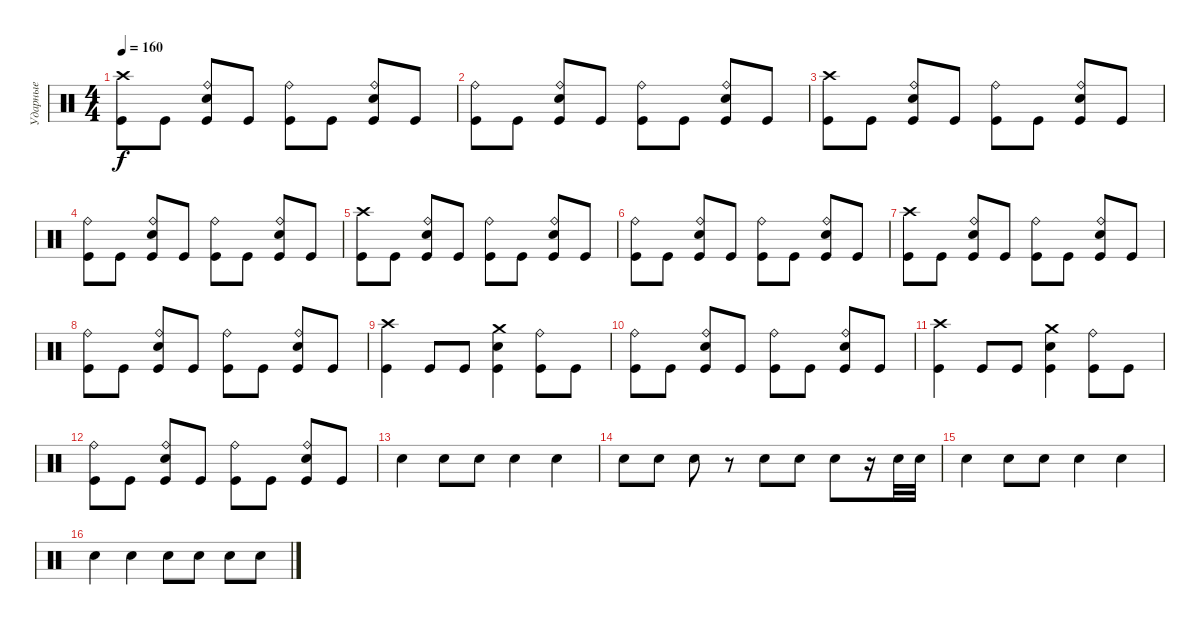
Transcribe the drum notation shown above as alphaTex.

\track ("Ударные" "Ударные") {instrument percussion}
\staff {score}
\articulation defaults
\ts (4 4)
\tempo 160
\clef neutral
\ks c
("Crash high (hit)" "Kick (hit)").8{dy f} "Kick (hit)".8 ("Ride (bell)" "Electric Snare (hit)" "Kick (hit)").8 "Kick (hit)".8 ("Ride (bell)" "Kick (hit)").8 "Kick (hit)".8 ("Ride (bell)" "Electric Snare (hit)" "Kick (hit)").8 "Kick (hit)".8 |
("Ride (bell)" "Kick (hit)").8 "Kick (hit)".8 ("Ride (bell)" "Electric Snare (hit)" "Kick (hit)").8 "Kick (hit)".8 ("Ride (bell)" "Kick (hit)").8 "Kick (hit)".8 ("Ride (bell)" "Electric Snare (hit)" "Kick (hit)").8 "Kick (hit)".8 |
("Crash high (hit)" "Kick (hit)").8 "Kick (hit)".8 ("Ride (bell)" "Electric Snare (hit)" "Kick (hit)").8 "Kick (hit)".8 ("Ride (bell)" "Kick (hit)").8 "Kick (hit)".8 ("Ride (bell)" "Electric Snare (hit)" "Kick (hit)").8 "Kick (hit)".8 |
("Ride (bell)" "Kick (hit)").8 "Kick (hit)".8 ("Ride (bell)" "Electric Snare (hit)" "Kick (hit)").8 "Kick (hit)".8 ("Ride (bell)" "Kick (hit)").8 "Kick (hit)".8 ("Ride (bell)" "Electric Snare (hit)" "Kick (hit)").8 "Kick (hit)".8 |
("Crash high (hit)" "Kick (hit)").8 "Kick (hit)".8 ("Ride (bell)" "Electric Snare (hit)" "Kick (hit)").8 "Kick (hit)".8 ("Ride (bell)" "Kick (hit)").8 "Kick (hit)".8 ("Ride (bell)" "Electric Snare (hit)" "Kick (hit)").8 "Kick (hit)".8 |
("Ride (bell)" "Kick (hit)").8 "Kick (hit)".8 ("Ride (bell)" "Electric Snare (hit)" "Kick (hit)").8 "Kick (hit)".8 ("Ride (bell)" "Kick (hit)").8 "Kick (hit)".8 ("Ride (bell)" "Electric Snare (hit)" "Kick (hit)").8 "Kick (hit)".8 |
("Crash high (hit)" "Kick (hit)").8 "Kick (hit)".8 ("Ride (bell)" "Electric Snare (hit)" "Kick (hit)").8 "Kick (hit)".8 ("Ride (bell)" "Kick (hit)").8 "Kick (hit)".8 ("Ride (bell)" "Electric Snare (hit)" "Kick (hit)").8 "Kick (hit)".8 |
("Ride (bell)" "Kick (hit)").8 "Kick (hit)".8 ("Ride (bell)" "Electric Snare (hit)" "Kick (hit)").8 "Kick (hit)".8 ("Ride (bell)" "Kick (hit)").8 "Kick (hit)".8 ("Ride (bell)" "Electric Snare (hit)" "Kick (hit)").8 "Kick (hit)".8 |
("Crash high (hit)" "Kick (hit)").4 "Kick (hit)".8 "Kick (hit)".8 ("Crash medium (hit)" "Electric Snare (hit)" "Kick (hit)").4 ("Ride (bell)" "Kick (hit)").8 "Kick (hit)".8 |
("Ride (bell)" "Kick (hit)").8 "Kick (hit)".8 ("Ride (bell)" "Electric Snare (hit)" "Kick (hit)").8 "Kick (hit)".8 ("Ride (bell)" "Kick (hit)").8 "Kick (hit)".8 ("Ride (bell)" "Electric Snare (hit)" "Kick (hit)").8 "Kick (hit)".8 |
("Crash high (hit)" "Kick (hit)").4 "Kick (hit)".8 "Kick (hit)".8 ("Crash medium (hit)" "Electric Snare (hit)" "Kick (hit)").4 ("Ride (bell)" "Kick (hit)").8 "Kick (hit)".8 |
("Ride (bell)" "Kick (hit)").8 "Kick (hit)".8 ("Ride (bell)" "Electric Snare (hit)" "Kick (hit)").8 "Kick (hit)".8 ("Ride (bell)" "Kick (hit)").8 "Kick (hit)".8 ("Ride (bell)" "Electric Snare (hit)" "Kick (hit)").8 "Kick (hit)".8 |
"Snare (hit) 2".4 "Snare (hit) 2".8 "Snare (hit) 2".8 "Snare (hit) 2".4 "Snare (hit) 2".4 |
"Snare (hit) 2".8 "Snare (hit) 2".8 "Snare (hit) 2".8 r.8 "Snare (hit) 2".8 "Snare (hit) 2".8 "Snare (hit) 2".8 r.16 "Snare (hit) 2".32 "Snare (hit) 2".32 |
"Snare (hit) 2".4 "Snare (hit) 2".8 "Snare (hit) 2".8 "Snare (hit) 2".4 "Snare (hit) 2".4 |
"Snare (hit) 2".4 "Snare (hit) 2".4 "Snare (hit) 2".8 "Snare (hit) 2".8 "Snare (hit) 2".8 "Snare (hit) 2".8
